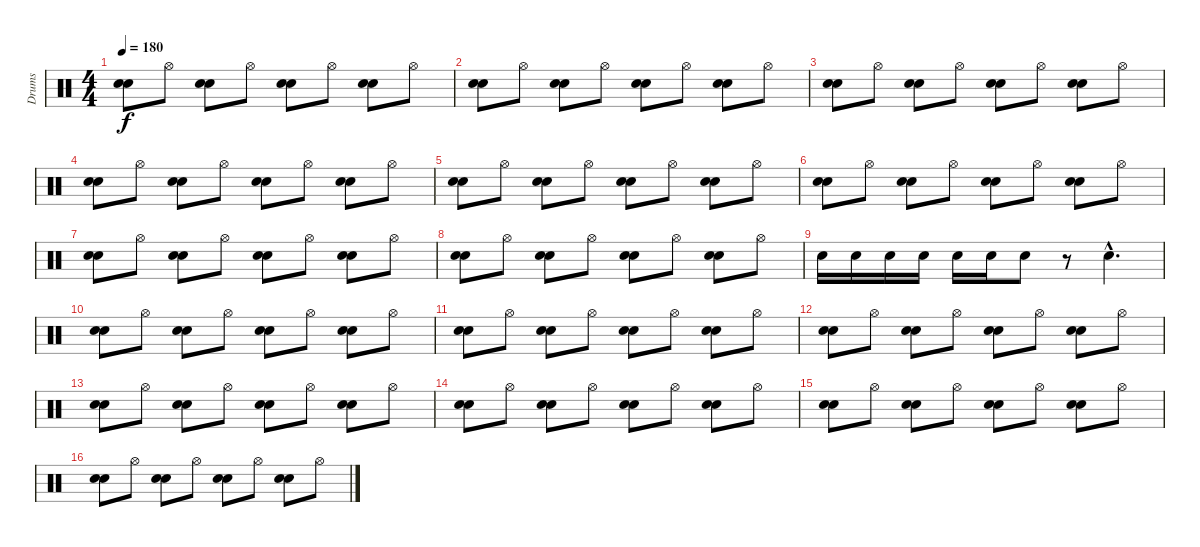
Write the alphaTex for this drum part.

\track ("Drums" "Drums") {instrument percussion}
\staff {score}
\articulation defaults
\ts (4 4)
\tempo 180
\clef neutral
\ks c
("Electric Snare (hit)" "Snare (hit) 2").8{dy f} "Hi-Hat (open)".8 ("Electric Snare (hit)" "Snare (hit) 2").8 "Hi-Hat (open)".8 ("Electric Snare (hit)" "Snare (hit) 2").8 "Hi-Hat (open)".8 ("Electric Snare (hit)" "Snare (hit) 2").8 "Hi-Hat (open)".8 |
("Electric Snare (hit)" "Snare (hit) 2").8 "Hi-Hat (open)".8 ("Electric Snare (hit)" "Snare (hit) 2").8 "Hi-Hat (open)".8 ("Electric Snare (hit)" "Snare (hit) 2").8 "Hi-Hat (open)".8 ("Electric Snare (hit)" "Snare (hit) 2").8 "Hi-Hat (open)".8 |
("Electric Snare (hit)" "Snare (hit) 2").8 "Hi-Hat (open)".8 ("Electric Snare (hit)" "Snare (hit) 2").8 "Hi-Hat (open)".8 ("Electric Snare (hit)" "Snare (hit) 2").8 "Hi-Hat (open)".8 ("Electric Snare (hit)" "Snare (hit) 2").8 "Hi-Hat (open)".8 |
("Electric Snare (hit)" "Snare (hit) 2").8 "Hi-Hat (open)".8 ("Electric Snare (hit)" "Snare (hit) 2").8 "Hi-Hat (open)".8 ("Electric Snare (hit)" "Snare (hit) 2").8 "Hi-Hat (open)".8 ("Electric Snare (hit)" "Snare (hit) 2").8 "Hi-Hat (open)".8 |
("Electric Snare (hit)" "Snare (hit) 2").8 "Hi-Hat (open)".8 ("Electric Snare (hit)" "Snare (hit) 2").8 "Hi-Hat (open)".8 ("Electric Snare (hit)" "Snare (hit) 2").8 "Hi-Hat (open)".8 ("Electric Snare (hit)" "Snare (hit) 2").8 "Hi-Hat (open)".8 |
("Electric Snare (hit)" "Snare (hit) 2").8 "Hi-Hat (open)".8 ("Electric Snare (hit)" "Snare (hit) 2").8 "Hi-Hat (open)".8 ("Electric Snare (hit)" "Snare (hit) 2").8 "Hi-Hat (open)".8 ("Electric Snare (hit)" "Snare (hit) 2").8 "Hi-Hat (open)".8 |
("Electric Snare (hit)" "Snare (hit) 2").8 "Hi-Hat (open)".8 ("Electric Snare (hit)" "Snare (hit) 2").8 "Hi-Hat (open)".8 ("Electric Snare (hit)" "Snare (hit) 2").8 "Hi-Hat (open)".8 ("Electric Snare (hit)" "Snare (hit) 2").8 "Hi-Hat (open)".8 |
("Electric Snare (hit)" "Snare (hit) 2").8 "Hi-Hat (open)".8 ("Electric Snare (hit)" "Snare (hit) 2").8 "Hi-Hat (open)".8 ("Electric Snare (hit)" "Snare (hit) 2").8 "Hi-Hat (open)".8 ("Electric Snare (hit)" "Snare (hit) 2").8 "Hi-Hat (open)".8 |
"Electric Snare (hit)".16 "Electric Snare (hit)".16 "Electric Snare (hit)".16 "Electric Snare (hit)".16 "Electric Snare (hit)".16 "Electric Snare (hit)".16 "Electric Snare (hit)".8 r.8 "Electric Snare (hit)"{hac}.4{d} |
("Electric Snare (hit)" "Snare (hit) 2").8 "Hi-Hat (open)".8 ("Electric Snare (hit)" "Snare (hit) 2").8 "Hi-Hat (open)".8 ("Electric Snare (hit)" "Snare (hit) 2").8 "Hi-Hat (open)".8 ("Electric Snare (hit)" "Snare (hit) 2").8 "Hi-Hat (open)".8 |
("Electric Snare (hit)" "Snare (hit) 2").8 "Hi-Hat (open)".8 ("Electric Snare (hit)" "Snare (hit) 2").8 "Hi-Hat (open)".8 ("Electric Snare (hit)" "Snare (hit) 2").8 "Hi-Hat (open)".8 ("Electric Snare (hit)" "Snare (hit) 2").8 "Hi-Hat (open)".8 |
("Electric Snare (hit)" "Snare (hit) 2").8 "Hi-Hat (open)".8 ("Electric Snare (hit)" "Snare (hit) 2").8 "Hi-Hat (open)".8 ("Electric Snare (hit)" "Snare (hit) 2").8 "Hi-Hat (open)".8 ("Electric Snare (hit)" "Snare (hit) 2").8 "Hi-Hat (open)".8 |
("Electric Snare (hit)" "Snare (hit) 2").8 "Hi-Hat (open)".8 ("Electric Snare (hit)" "Snare (hit) 2").8 "Hi-Hat (open)".8 ("Electric Snare (hit)" "Snare (hit) 2").8 "Hi-Hat (open)".8 ("Electric Snare (hit)" "Snare (hit) 2").8 "Hi-Hat (open)".8 |
("Electric Snare (hit)" "Snare (hit) 2").8 "Hi-Hat (open)".8 ("Electric Snare (hit)" "Snare (hit) 2").8 "Hi-Hat (open)".8 ("Electric Snare (hit)" "Snare (hit) 2").8 "Hi-Hat (open)".8 ("Electric Snare (hit)" "Snare (hit) 2").8 "Hi-Hat (open)".8 |
("Electric Snare (hit)" "Snare (hit) 2").8 "Hi-Hat (open)".8 ("Electric Snare (hit)" "Snare (hit) 2").8 "Hi-Hat (open)".8 ("Electric Snare (hit)" "Snare (hit) 2").8 "Hi-Hat (open)".8 ("Electric Snare (hit)" "Snare (hit) 2").8 "Hi-Hat (open)".8 |
("Electric Snare (hit)" "Snare (hit) 2").8 "Hi-Hat (open)".8 ("Electric Snare (hit)" "Snare (hit) 2").8 "Hi-Hat (open)".8 ("Electric Snare (hit)" "Snare (hit) 2").8 "Hi-Hat (open)".8 ("Electric Snare (hit)" "Snare (hit) 2").8 "Hi-Hat (open)".8
